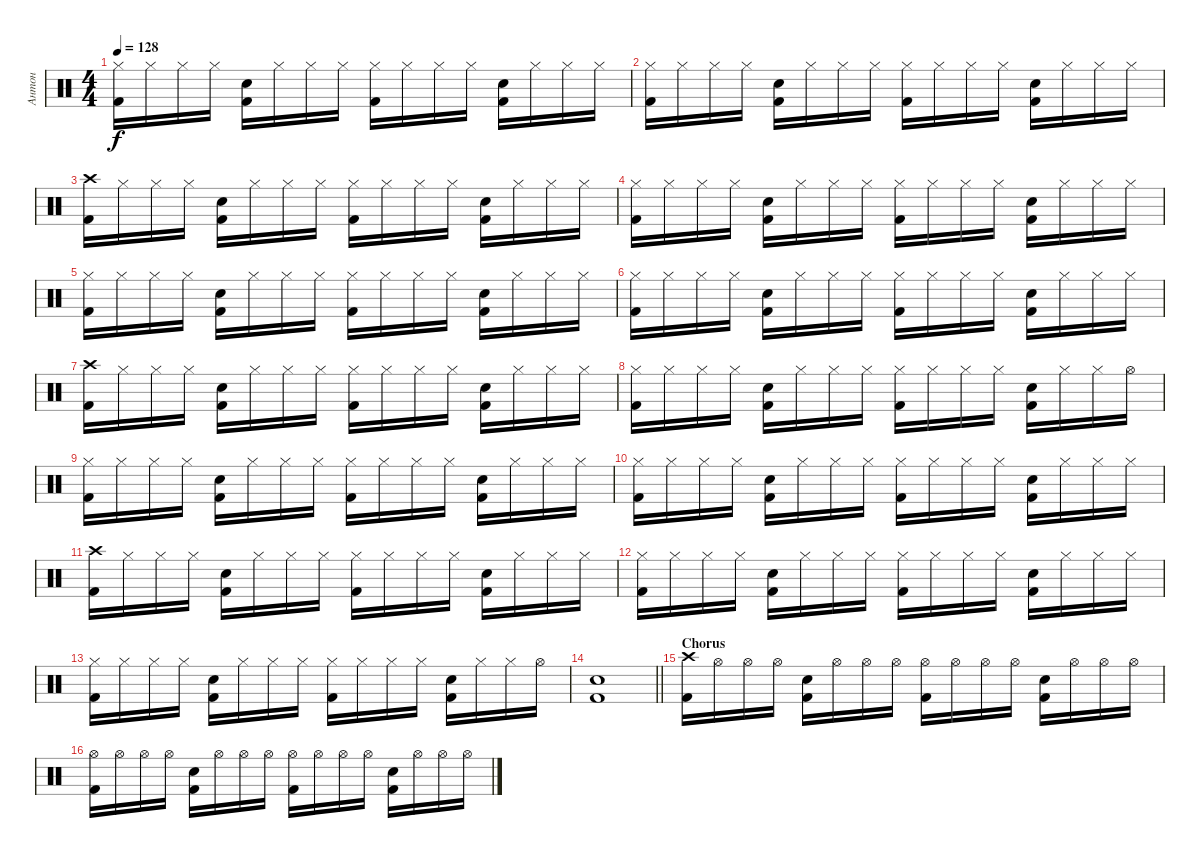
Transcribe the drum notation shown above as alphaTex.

\track ("Антон" "Антон") {instrument percussion}
\staff {score}
\articulation defaults
\ts (4 4)
\tempo 128
\clef neutral
\ks c
("Hi-Hat (closed)" "Kick (hit) 2").16{dy f} "Hi-Hat (closed)".16 "Hi-Hat (closed)".16 "Hi-Hat (closed)".16 ("Snare (hit) 2" "Kick (hit) 2").16 "Hi-Hat (closed)".16 "Hi-Hat (closed)".16 "Hi-Hat (closed)".16 ("Hi-Hat (closed)" "Kick (hit) 2").16 "Hi-Hat (closed)".16 "Hi-Hat (closed)".16 "Hi-Hat (closed)".16 ("Snare (hit) 2" "Kick (hit) 2").16 "Hi-Hat (closed)".16 "Hi-Hat (closed)".16 "Hi-Hat (closed)".16 |
("Hi-Hat (closed)" "Kick (hit) 2").16 "Hi-Hat (closed)".16 "Hi-Hat (closed)".16 "Hi-Hat (closed)".16 ("Snare (hit) 2" "Kick (hit) 2").16 "Hi-Hat (closed)".16 "Hi-Hat (closed)".16 "Hi-Hat (closed)".16 ("Hi-Hat (closed)" "Kick (hit) 2").16 "Hi-Hat (closed)".16 "Hi-Hat (closed)".16 "Hi-Hat (closed)".16 ("Snare (hit) 2" "Kick (hit) 2").16 "Hi-Hat (closed)".16 "Hi-Hat (closed)".16 "Hi-Hat (closed)".16 |
("Crash high (hit)" "Kick (hit) 2").16 "Hi-Hat (closed)".16 "Hi-Hat (closed)".16 "Hi-Hat (closed)".16 ("Snare (hit) 2" "Kick (hit) 2").16 "Hi-Hat (closed)".16 "Hi-Hat (closed)".16 "Hi-Hat (closed)".16 ("Hi-Hat (closed)" "Kick (hit) 2").16 "Hi-Hat (closed)".16 "Hi-Hat (closed)".16 "Hi-Hat (closed)".16 ("Snare (hit) 2" "Kick (hit) 2").16 "Hi-Hat (closed)".16 "Hi-Hat (closed)".16 "Hi-Hat (closed)".16 |
("Hi-Hat (closed)" "Kick (hit) 2").16 "Hi-Hat (closed)".16 "Hi-Hat (closed)".16 "Hi-Hat (closed)".16 ("Snare (hit) 2" "Kick (hit) 2").16 "Hi-Hat (closed)".16 "Hi-Hat (closed)".16 "Hi-Hat (closed)".16 ("Hi-Hat (closed)" "Kick (hit) 2").16 "Hi-Hat (closed)".16 "Hi-Hat (closed)".16 "Hi-Hat (closed)".16 ("Snare (hit) 2" "Kick (hit) 2").16 "Hi-Hat (closed)".16 "Hi-Hat (closed)".16 "Hi-Hat (closed)".16 |
("Hi-Hat (closed)" "Kick (hit) 2").16 "Hi-Hat (closed)".16 "Hi-Hat (closed)".16 "Hi-Hat (closed)".16 ("Snare (hit) 2" "Kick (hit) 2").16 "Hi-Hat (closed)".16 "Hi-Hat (closed)".16 "Hi-Hat (closed)".16 ("Hi-Hat (closed)" "Kick (hit) 2").16 "Hi-Hat (closed)".16 "Hi-Hat (closed)".16 "Hi-Hat (closed)".16 ("Snare (hit) 2" "Kick (hit) 2").16 "Hi-Hat (closed)".16 "Hi-Hat (closed)".16 "Hi-Hat (closed)".16 |
("Hi-Hat (closed)" "Kick (hit) 2").16 "Hi-Hat (closed)".16 "Hi-Hat (closed)".16 "Hi-Hat (closed)".16 ("Snare (hit) 2" "Kick (hit) 2").16 "Hi-Hat (closed)".16 "Hi-Hat (closed)".16 "Hi-Hat (closed)".16 ("Hi-Hat (closed)" "Kick (hit) 2").16 "Hi-Hat (closed)".16 "Hi-Hat (closed)".16 "Hi-Hat (closed)".16 ("Snare (hit) 2" "Kick (hit) 2").16 "Hi-Hat (closed)".16 "Hi-Hat (closed)".16 "Hi-Hat (closed)".16 |
("Crash high (hit)" "Kick (hit) 2").16 "Hi-Hat (closed)".16 "Hi-Hat (closed)".16 "Hi-Hat (closed)".16 ("Snare (hit) 2" "Kick (hit) 2").16 "Hi-Hat (closed)".16 "Hi-Hat (closed)".16 "Hi-Hat (closed)".16 ("Hi-Hat (closed)" "Kick (hit) 2").16 "Hi-Hat (closed)".16 "Hi-Hat (closed)".16 "Hi-Hat (closed)".16 ("Snare (hit) 2" "Kick (hit) 2").16 "Hi-Hat (closed)".16 "Hi-Hat (closed)".16 "Hi-Hat (closed)".16 |
("Hi-Hat (closed)" "Kick (hit) 2").16 "Hi-Hat (closed)".16 "Hi-Hat (closed)".16 "Hi-Hat (closed)".16 ("Snare (hit) 2" "Kick (hit) 2").16 "Hi-Hat (closed)".16 "Hi-Hat (closed)".16 "Hi-Hat (closed)".16 ("Hi-Hat (closed)" "Kick (hit) 2").16 "Hi-Hat (closed)".16 "Hi-Hat (closed)".16 "Hi-Hat (closed)".16 ("Snare (hit) 2" "Kick (hit) 2").16 "Hi-Hat (closed)".16 "Hi-Hat (closed)".16 "Hi-Hat (open)".16 |
("Hi-Hat (closed)" "Kick (hit) 2").16 "Hi-Hat (closed)".16 "Hi-Hat (closed)".16 "Hi-Hat (closed)".16 ("Snare (hit) 2" "Kick (hit) 2").16 "Hi-Hat (closed)".16 "Hi-Hat (closed)".16 "Hi-Hat (closed)".16 ("Hi-Hat (closed)" "Kick (hit) 2").16 "Hi-Hat (closed)".16 "Hi-Hat (closed)".16 "Hi-Hat (closed)".16 ("Snare (hit) 2" "Kick (hit) 2").16 "Hi-Hat (closed)".16 "Hi-Hat (closed)".16 "Hi-Hat (closed)".16 |
("Hi-Hat (closed)" "Kick (hit) 2").16 "Hi-Hat (closed)".16 "Hi-Hat (closed)".16 "Hi-Hat (closed)".16 ("Snare (hit) 2" "Kick (hit) 2").16 "Hi-Hat (closed)".16 "Hi-Hat (closed)".16 "Hi-Hat (closed)".16 ("Hi-Hat (closed)" "Kick (hit) 2").16 "Hi-Hat (closed)".16 "Hi-Hat (closed)".16 "Hi-Hat (closed)".16 ("Snare (hit) 2" "Kick (hit) 2").16 "Hi-Hat (closed)".16 "Hi-Hat (closed)".16 "Hi-Hat (closed)".16 |
("Crash high (hit)" "Kick (hit) 2").16 "Hi-Hat (closed)".16 "Hi-Hat (closed)".16 "Hi-Hat (closed)".16 ("Snare (hit) 2" "Kick (hit) 2").16 "Hi-Hat (closed)".16 "Hi-Hat (closed)".16 "Hi-Hat (closed)".16 ("Hi-Hat (closed)" "Kick (hit) 2").16 "Hi-Hat (closed)".16 "Hi-Hat (closed)".16 "Hi-Hat (closed)".16 ("Snare (hit) 2" "Kick (hit) 2").16 "Hi-Hat (closed)".16 "Hi-Hat (closed)".16 "Hi-Hat (closed)".16 |
("Hi-Hat (closed)" "Kick (hit) 2").16 "Hi-Hat (closed)".16 "Hi-Hat (closed)".16 "Hi-Hat (closed)".16 ("Snare (hit) 2" "Kick (hit) 2").16 "Hi-Hat (closed)".16 "Hi-Hat (closed)".16 "Hi-Hat (closed)".16 ("Hi-Hat (closed)" "Kick (hit) 2").16 "Hi-Hat (closed)".16 "Hi-Hat (closed)".16 "Hi-Hat (closed)".16 ("Snare (hit) 2" "Kick (hit) 2").16 "Hi-Hat (closed)".16 "Hi-Hat (closed)".16 "Hi-Hat (closed)".16 |
("Hi-Hat (closed)" "Kick (hit) 2").16 "Hi-Hat (closed)".16 "Hi-Hat (closed)".16 "Hi-Hat (closed)".16 ("Snare (hit) 2" "Kick (hit) 2").16 "Hi-Hat (closed)".16 "Hi-Hat (closed)".16 "Hi-Hat (closed)".16 ("Hi-Hat (closed)" "Kick (hit) 2").16 "Hi-Hat (closed)".16 "Hi-Hat (closed)".16 "Hi-Hat (closed)".16 ("Snare (hit) 2" "Kick (hit) 2").16 "Hi-Hat (closed)".16 "Hi-Hat (closed)".16 "Hi-Hat (open)".16 |
\barLineRight lightlight
("Snare (hit) 2" "Kick (hit) 2").1 |
\section ("" "Chorus")
("Crash high (hit)" "Kick (hit) 2").16 "Hi-Hat (open)".16 "Hi-Hat (open)".16 "Hi-Hat (open)".16 ("Snare (hit) 2" "Kick (hit) 2").16 "Hi-Hat (open)".16 "Hi-Hat (open)".16 "Hi-Hat (open)".16 ("Hi-Hat (open)" "Kick (hit) 2").16 "Hi-Hat (open)".16 "Hi-Hat (open)".16 "Hi-Hat (open)".16 ("Snare (hit) 2" "Kick (hit) 2").16 "Hi-Hat (open)".16 "Hi-Hat (open)".16 "Hi-Hat (open)".16 |
("Hi-Hat (open)" "Kick (hit) 2").16 "Hi-Hat (open)".16 "Hi-Hat (open)".16 "Hi-Hat (open)".16 ("Snare (hit) 2" "Kick (hit) 2").16 "Hi-Hat (open)".16 "Hi-Hat (open)".16 "Hi-Hat (open)".16 ("Hi-Hat (open)" "Kick (hit) 2").16 "Hi-Hat (open)".16 "Hi-Hat (open)".16 "Hi-Hat (open)".16 ("Snare (hit) 2" "Kick (hit) 2").16 "Hi-Hat (open)".16 "Hi-Hat (open)".16 "Hi-Hat (open)".16
